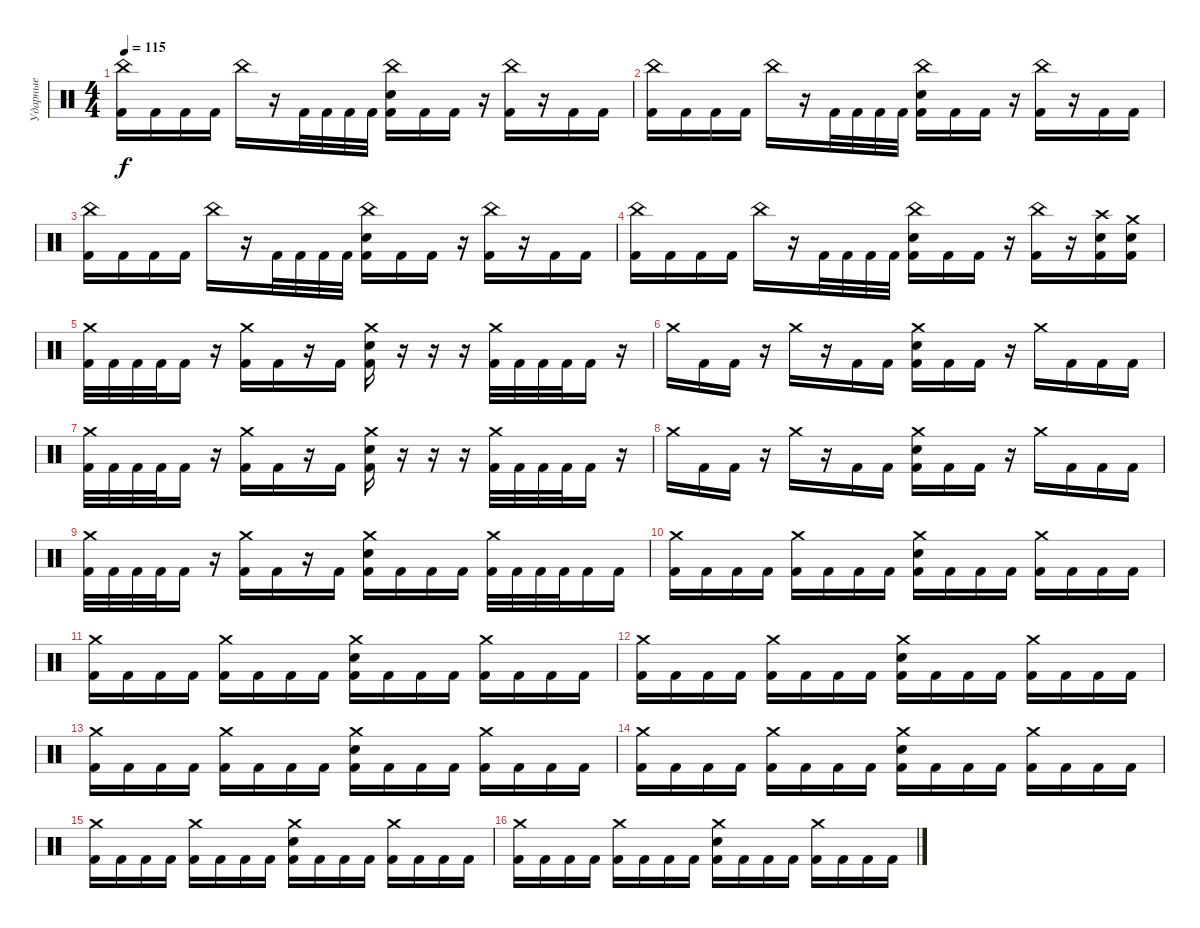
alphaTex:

\track ("Ударные" "Ударные") {instrument percussion}
\staff {score}
\articulation defaults
\ts (4 4)
\tempo 115
\clef neutral
\ks c
("China (hit)" "Kick (hit) 2").16{dy f} "Kick (hit) 2".16 "Kick (hit) 2".16 "Kick (hit) 2".16 "China (hit)".16 r.16 "Kick (hit) 2".32 "Kick (hit) 2".32 "Kick (hit) 2".32 "Kick (hit) 2".32 ("China (hit)" "Electric Snare (hit)" "Kick (hit) 2").16 "Kick (hit) 2".16 "Kick (hit) 2".16 r.16 ("China (hit)" "Kick (hit) 2").16 r.16 "Kick (hit) 2".16 "Kick (hit) 2".16 |
("China (hit)" "Kick (hit) 2").16 "Kick (hit) 2".16 "Kick (hit) 2".16 "Kick (hit) 2".16 "China (hit)".16 r.16 "Kick (hit) 2".32 "Kick (hit) 2".32 "Kick (hit) 2".32 "Kick (hit) 2".32 ("China (hit)" "Electric Snare (hit)" "Kick (hit) 2").16 "Kick (hit) 2".16 "Kick (hit) 2".16 r.16 ("China (hit)" "Kick (hit) 2").16 r.16 "Kick (hit) 2".16 "Kick (hit) 2".16 |
("China (hit)" "Kick (hit) 2").16 "Kick (hit) 2".16 "Kick (hit) 2".16 "Kick (hit) 2".16 "China (hit)".16 r.16 "Kick (hit) 2".32 "Kick (hit) 2".32 "Kick (hit) 2".32 "Kick (hit) 2".32 ("China (hit)" "Electric Snare (hit)" "Kick (hit) 2").16 "Kick (hit) 2".16 "Kick (hit) 2".16 r.16 ("China (hit)" "Kick (hit) 2").16 r.16 "Kick (hit) 2".16 "Kick (hit) 2".16 |
("China (hit)" "Kick (hit) 2").16 "Kick (hit) 2".16 "Kick (hit) 2".16 "Kick (hit) 2".16 "China (hit)".16 r.16 "Kick (hit) 2".32 "Kick (hit) 2".32 "Kick (hit) 2".32 "Kick (hit) 2".32 ("China (hit)" "Electric Snare (hit)" "Kick (hit) 2").16 "Kick (hit) 2".16 "Kick (hit) 2".16 r.16 ("China (hit)" "Kick (hit) 2").16 r.16 ("Crash high (hit)" "Electric Snare (hit)" "Kick (hit) 2").16 ("Crash medium (hit)" "Electric Snare (hit)" "Kick (hit) 2").16 |
("Crash medium (hit)" "Kick (hit) 2").32 "Kick (hit) 2".32 "Kick (hit) 2".32 "Kick (hit) 2".32 "Kick (hit) 2".16 r.16 ("Crash medium (hit)" "Kick (hit) 2").16 "Kick (hit) 2".16 r.16 "Kick (hit) 2".16 ("Crash medium (hit)" "Electric Snare (hit)" "Kick (hit) 2").16 r.16 r.16 r.16 ("Crash medium (hit)" "Kick (hit) 2").32 "Kick (hit) 2".32 "Kick (hit) 2".32 "Kick (hit) 2".32 "Kick (hit) 2".16 r.16 |
"Crash medium (hit)".16 "Kick (hit) 2".16 "Kick (hit) 2".16 r.16 "Crash medium (hit)".16 r.16 "Kick (hit) 2".16 "Kick (hit) 2".16 ("Crash medium (hit)" "Electric Snare (hit)" "Kick (hit) 2").16 "Kick (hit) 2".16 "Kick (hit) 2".16 r.16 "Crash medium (hit)".16 "Kick (hit) 2".16 "Kick (hit) 2".16 "Kick (hit) 2".16 |
("Crash medium (hit)" "Kick (hit) 2").32 "Kick (hit) 2".32 "Kick (hit) 2".32 "Kick (hit) 2".32 "Kick (hit) 2".16 r.16 ("Crash medium (hit)" "Kick (hit) 2").16 "Kick (hit) 2".16 r.16 "Kick (hit) 2".16 ("Crash medium (hit)" "Electric Snare (hit)" "Kick (hit) 2").16 r.16 r.16 r.16 ("Crash medium (hit)" "Kick (hit) 2").32 "Kick (hit) 2".32 "Kick (hit) 2".32 "Kick (hit) 2".32 "Kick (hit) 2".16 r.16 |
"Crash medium (hit)".16 "Kick (hit) 2".16 "Kick (hit) 2".16 r.16 "Crash medium (hit)".16 r.16 "Kick (hit) 2".16 "Kick (hit) 2".16 ("Crash medium (hit)" "Electric Snare (hit)" "Kick (hit) 2").16 "Kick (hit) 2".16 "Kick (hit) 2".16 r.16 "Crash medium (hit)".16 "Kick (hit) 2".16 "Kick (hit) 2".16 "Kick (hit) 2".16 |
("Crash medium (hit)" "Kick (hit) 2").32 "Kick (hit) 2".32 "Kick (hit) 2".32 "Kick (hit) 2".32 "Kick (hit) 2".16 r.16 ("Crash medium (hit)" "Kick (hit) 2").16 "Kick (hit) 2".16 r.16 "Kick (hit) 2".16 ("Crash medium (hit)" "Electric Snare (hit)" "Kick (hit) 2").16 "Kick (hit) 2".16 "Kick (hit) 2".16 "Kick (hit) 2".16 ("Crash medium (hit)" "Kick (hit) 2").32 "Kick (hit) 2".32 "Kick (hit) 2".32 "Kick (hit) 2".32 "Kick (hit) 2".16 "Kick (hit) 2".16 |
("Crash medium (hit)" "Kick (hit) 2").16 "Kick (hit) 2".16 "Kick (hit) 2".16 "Kick (hit) 2".16 ("Crash medium (hit)" "Kick (hit) 2").16 "Kick (hit) 2".16 "Kick (hit) 2".16 "Kick (hit) 2".16 ("Crash medium (hit)" "Electric Snare (hit)" "Kick (hit) 2").16 "Kick (hit) 2".16 "Kick (hit) 2".16 "Kick (hit) 2".16 ("Crash medium (hit)" "Kick (hit) 2").16 "Kick (hit) 2".16 "Kick (hit) 2".16 "Kick (hit) 2".16 |
("Crash medium (hit)" "Kick (hit) 2").16 "Kick (hit) 2".16 "Kick (hit) 2".16 "Kick (hit) 2".16 ("Crash medium (hit)" "Kick (hit) 2").16 "Kick (hit) 2".16 "Kick (hit) 2".16 "Kick (hit) 2".16 ("Crash medium (hit)" "Electric Snare (hit)" "Kick (hit) 2").16 "Kick (hit) 2".16 "Kick (hit) 2".16 "Kick (hit) 2".16 ("Crash medium (hit)" "Kick (hit) 2").16 "Kick (hit) 2".16 "Kick (hit) 2".16 "Kick (hit) 2".16 |
("Crash medium (hit)" "Kick (hit) 2").16 "Kick (hit) 2".16 "Kick (hit) 2".16 "Kick (hit) 2".16 ("Crash medium (hit)" "Kick (hit) 2").16 "Kick (hit) 2".16 "Kick (hit) 2".16 "Kick (hit) 2".16 ("Crash medium (hit)" "Electric Snare (hit)" "Kick (hit) 2").16 "Kick (hit) 2".16 "Kick (hit) 2".16 "Kick (hit) 2".16 ("Crash medium (hit)" "Kick (hit) 2").16 "Kick (hit) 2".16 "Kick (hit) 2".16 "Kick (hit) 2".16 |
("Crash medium (hit)" "Kick (hit) 2").16 "Kick (hit) 2".16 "Kick (hit) 2".16 "Kick (hit) 2".16 ("Crash medium (hit)" "Kick (hit) 2").16 "Kick (hit) 2".16 "Kick (hit) 2".16 "Kick (hit) 2".16 ("Crash medium (hit)" "Electric Snare (hit)" "Kick (hit) 2").16 "Kick (hit) 2".16 "Kick (hit) 2".16 "Kick (hit) 2".16 ("Crash medium (hit)" "Kick (hit) 2").16 "Kick (hit) 2".16 "Kick (hit) 2".16 "Kick (hit) 2".16 |
("Crash medium (hit)" "Kick (hit) 2").16 "Kick (hit) 2".16 "Kick (hit) 2".16 "Kick (hit) 2".16 ("Crash medium (hit)" "Kick (hit) 2").16 "Kick (hit) 2".16 "Kick (hit) 2".16 "Kick (hit) 2".16 ("Crash medium (hit)" "Electric Snare (hit)" "Kick (hit) 2").16 "Kick (hit) 2".16 "Kick (hit) 2".16 "Kick (hit) 2".16 ("Crash medium (hit)" "Kick (hit) 2").16 "Kick (hit) 2".16 "Kick (hit) 2".16 "Kick (hit) 2".16 |
("Crash medium (hit)" "Kick (hit) 2").16 "Kick (hit) 2".16 "Kick (hit) 2".16 "Kick (hit) 2".16 ("Crash medium (hit)" "Kick (hit) 2").16 "Kick (hit) 2".16 "Kick (hit) 2".16 "Kick (hit) 2".16 ("Crash medium (hit)" "Electric Snare (hit)" "Kick (hit) 2").16 "Kick (hit) 2".16 "Kick (hit) 2".16 "Kick (hit) 2".16 ("Crash medium (hit)" "Kick (hit) 2").16 "Kick (hit) 2".16 "Kick (hit) 2".16 "Kick (hit) 2".16 |
("Crash medium (hit)" "Kick (hit) 2").16 "Kick (hit) 2".16 "Kick (hit) 2".16 "Kick (hit) 2".16 ("Crash medium (hit)" "Kick (hit) 2").16 "Kick (hit) 2".16 "Kick (hit) 2".16 "Kick (hit) 2".16 ("Crash medium (hit)" "Electric Snare (hit)" "Kick (hit) 2").16 "Kick (hit) 2".16 "Kick (hit) 2".16 "Kick (hit) 2".16 ("Crash medium (hit)" "Kick (hit) 2").16 "Kick (hit) 2".16 "Kick (hit) 2".16 "Kick (hit) 2".16
